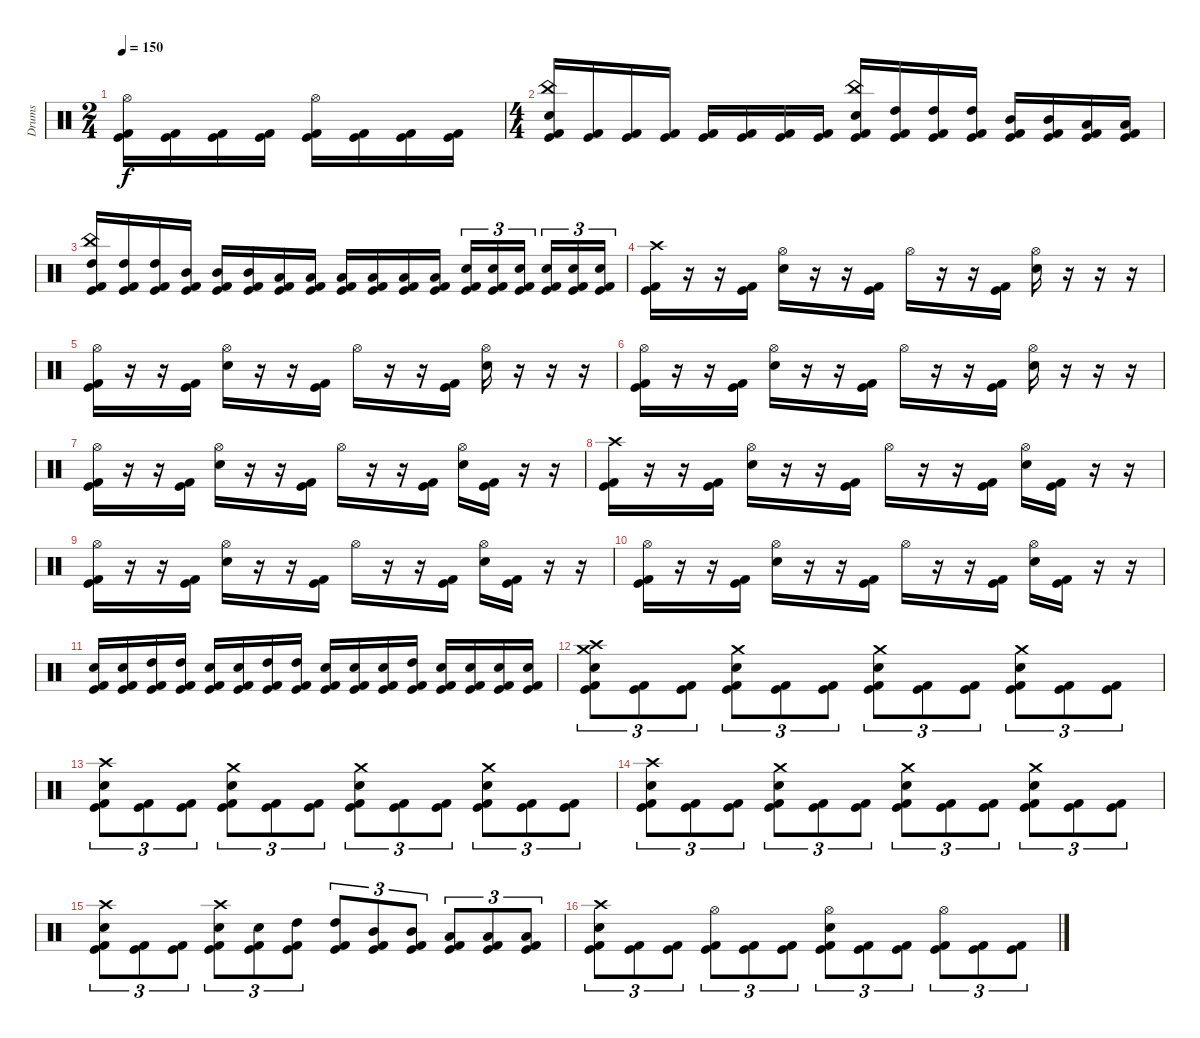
\track ("Drums" "Drums") {instrument percussion}
\staff {score}
\articulation defaults
\ts (2 4)
\tempo 150
\clef neutral
\ks c
("Hi-Hat (open)" "Kick (hit)" "Kick (hit) 2").16{dy f} ("Kick (hit)" "Kick (hit) 2").16 ("Kick (hit)" "Kick (hit) 2").16 ("Kick (hit)" "Kick (hit) 2").16 ("Hi-Hat (open)" "Kick (hit)" "Kick (hit) 2").16 ("Kick (hit)" "Kick (hit) 2").16 ("Kick (hit)" "Kick (hit) 2").16 ("Kick (hit)" "Kick (hit) 2").16 |
\ts (4 4)
("China (hit)" "Electric Snare (hit)" "Kick (hit)" "Kick (hit) 2").16 ("Kick (hit)" "Kick (hit) 2").16 ("Kick (hit)" "Kick (hit) 2").16 ("Kick (hit)" "Kick (hit) 2").16 ("Kick (hit)" "Kick (hit) 2").16 ("Kick (hit)" "Kick (hit) 2").16 ("Kick (hit)" "Kick (hit) 2").16 ("Kick (hit)" "Kick (hit) 2").16 ("China (hit)" "Electric Snare (hit)" "Kick (hit)" "Kick (hit) 2").16 ("High Tom (hit)" "Kick (hit)" "Kick (hit) 2").16 ("High Tom (hit)" "Kick (hit)" "Kick (hit) 2").16 ("High Tom (hit)" "Kick (hit)" "Kick (hit) 2").16 ("Mid Tom (hit)" "Kick (hit)" "Kick (hit) 2").16 ("Mid Tom (hit)" "Kick (hit)" "Kick (hit) 2").16 ("Low Tom (hit)" "Kick (hit)" "Kick (hit) 2").16 ("Low Floor Tom (hit)" "Kick (hit)" "Kick (hit) 2").16 |
("China (hit)" "High Tom (hit)" "Kick (hit)" "Kick (hit) 2").16 ("High Tom (hit)" "Kick (hit)" "Kick (hit) 2").16 ("High Tom (hit)" "Kick (hit)" "Kick (hit) 2").16 ("Mid Tom (hit)" "Kick (hit)" "Kick (hit) 2").16 ("Mid Tom (hit)" "Kick (hit)" "Kick (hit) 2").16 ("Mid Tom (hit)" "Kick (hit)" "Kick (hit) 2").16 ("Low Tom (hit)" "Kick (hit)" "Kick (hit) 2").16 ("Low Tom (hit)" "Kick (hit)" "Kick (hit) 2").16 ("Low Tom (hit)" "Kick (hit)" "Kick (hit) 2").16 ("Low Floor Tom (hit)" "Kick (hit)" "Kick (hit) 2").16 ("Low Floor Tom (hit)" "Kick (hit)" "Kick (hit) 2").16 ("Low Floor Tom (hit)" "Kick (hit)" "Kick (hit) 2").16 ("Electric Snare (hit)" "Kick (hit)" "Kick (hit) 2").16{tu (3 2)} ("Electric Snare (hit)" "Kick (hit)" "Kick (hit) 2").16{tu (3 2)} ("Electric Snare (hit)" "Kick (hit)" "Kick (hit) 2").16{tu (3 2) beam splitsecondary} ("Electric Snare (hit)" "Kick (hit)" "Kick (hit) 2").16{tu (3 2)} ("Electric Snare (hit)" "Kick (hit)" "Kick (hit) 2").16{tu (3 2)} ("Electric Snare (hit)" "Kick (hit)" "Kick (hit) 2").16{tu (3 2)} |
("Crash high (hit)" "Kick (hit)" "Kick (hit) 2").16 r.16 r.16 ("Kick (hit)" "Kick (hit) 2").16 ("Hi-Hat (open)" "Electric Snare (hit)").16 r.16 r.16 ("Kick (hit)" "Kick (hit) 2").16 "Hi-Hat (open)".16 r.16 r.16 ("Kick (hit)" "Kick (hit) 2").16 ("Hi-Hat (open)" "Electric Snare (hit)").16 r.16 r.16 r.16 |
("Hi-Hat (open)" "Kick (hit)" "Kick (hit) 2").16 r.16 r.16 ("Kick (hit)" "Kick (hit) 2").16 ("Hi-Hat (open)" "Electric Snare (hit)").16 r.16 r.16 ("Kick (hit)" "Kick (hit) 2").16 "Hi-Hat (open)".16 r.16 r.16 ("Kick (hit)" "Kick (hit) 2").16 ("Hi-Hat (open)" "Electric Snare (hit)").16 r.16 r.16 r.16 |
("Hi-Hat (open)" "Kick (hit)" "Kick (hit) 2").16 r.16 r.16 ("Kick (hit)" "Kick (hit) 2").16 ("Hi-Hat (open)" "Electric Snare (hit)").16 r.16 r.16 ("Kick (hit)" "Kick (hit) 2").16 "Hi-Hat (open)".16 r.16 r.16 ("Kick (hit)" "Kick (hit) 2").16 ("Hi-Hat (open)" "Electric Snare (hit)").16 r.16 r.16 r.16 |
("Hi-Hat (open)" "Kick (hit)" "Kick (hit) 2").16 r.16 r.16 ("Kick (hit)" "Kick (hit) 2").16 ("Hi-Hat (open)" "Electric Snare (hit)").16 r.16 r.16 ("Kick (hit)" "Kick (hit) 2").16 "Hi-Hat (open)".16 r.16 r.16 ("Kick (hit)" "Kick (hit) 2").16 ("Hi-Hat (open)" "Electric Snare (hit)").16 ("Kick (hit)" "Kick (hit) 2").16 r.16 r.16 |
("Crash high (hit)" "Kick (hit)" "Kick (hit) 2").16 r.16 r.16 ("Kick (hit)" "Kick (hit) 2").16 ("Hi-Hat (open)" "Electric Snare (hit)").16 r.16 r.16 ("Kick (hit)" "Kick (hit) 2").16 "Hi-Hat (open)".16 r.16 r.16 ("Kick (hit)" "Kick (hit) 2").16 ("Hi-Hat (open)" "Electric Snare (hit)").16 ("Kick (hit)" "Kick (hit) 2").16 r.16 r.16 |
("Hi-Hat (open)" "Kick (hit)" "Kick (hit) 2").16 r.16 r.16 ("Kick (hit)" "Kick (hit) 2").16 ("Hi-Hat (open)" "Electric Snare (hit)").16 r.16 r.16 ("Kick (hit)" "Kick (hit) 2").16 "Hi-Hat (open)".16 r.16 r.16 ("Kick (hit)" "Kick (hit) 2").16 ("Hi-Hat (open)" "Electric Snare (hit)").16 ("Kick (hit)" "Kick (hit) 2").16 r.16 r.16 |
("Hi-Hat (open)" "Kick (hit)" "Kick (hit) 2").16 r.16 r.16 ("Kick (hit)" "Kick (hit) 2").16 ("Hi-Hat (open)" "Electric Snare (hit)").16 r.16 r.16 ("Kick (hit)" "Kick (hit) 2").16 "Hi-Hat (open)".16 r.16 r.16 ("Kick (hit)" "Kick (hit) 2").16 ("Hi-Hat (open)" "Electric Snare (hit)").16 ("Kick (hit)" "Kick (hit) 2").16 r.16 r.16 |
("Electric Snare (hit)" "Kick (hit)" "Kick (hit) 2").16 ("Electric Snare (hit)" "Kick (hit)" "Kick (hit) 2").16 ("High Tom (hit)" "Kick (hit)" "Kick (hit) 2").16 ("High Tom (hit)" "Kick (hit)" "Kick (hit) 2").16 ("Electric Snare (hit)" "Kick (hit)" "Kick (hit) 2").16 ("Electric Snare (hit)" "Kick (hit)" "Kick (hit) 2").16 ("High Tom (hit)" "Kick (hit)" "Kick (hit) 2").16 ("High Tom (hit)" "Kick (hit)" "Kick (hit) 2").16 ("Electric Snare (hit)" "Kick (hit)" "Kick (hit) 2").16 ("Electric Snare (hit)" "Kick (hit)" "Kick (hit) 2").16 ("Electric Snare (hit)" "Kick (hit)" "Kick (hit) 2").16 ("High Tom (hit)" "Kick (hit)" "Kick (hit) 2").16 ("Electric Snare (hit)" "Kick (hit)" "Kick (hit) 2").16 ("Electric Snare (hit)" "Kick (hit)" "Kick (hit) 2").16 ("Electric Snare (hit)" "Kick (hit)" "Kick (hit) 2").16 ("Electric Snare (hit)" "Kick (hit)" "Kick (hit) 2").16 |
("Crash medium (hit)" "Crash high (hit)" "Electric Snare (hit)" "Kick (hit)" "Kick (hit) 2").8{tu (3 2)} ("Kick (hit)" "Kick (hit) 2").8{tu (3 2)} ("Kick (hit)" "Kick (hit) 2").8{tu (3 2)} ("Crash medium (hit)" "Electric Snare (hit)" "Kick (hit)" "Kick (hit) 2").8{tu (3 2)} ("Kick (hit)" "Kick (hit) 2").8{tu (3 2)} ("Kick (hit)" "Kick (hit) 2").8{tu (3 2)} ("Crash medium (hit)" "Electric Snare (hit)" "Kick (hit)" "Kick (hit) 2").8{tu (3 2)} ("Kick (hit)" "Kick (hit) 2").8{tu (3 2)} ("Kick (hit)" "Kick (hit) 2").8{tu (3 2)} ("Crash medium (hit)" "Electric Snare (hit)" "Kick (hit)" "Kick (hit) 2").8{tu (3 2)} ("Kick (hit)" "Kick (hit) 2").8{tu (3 2)} ("Kick (hit)" "Kick (hit) 2").8{tu (3 2)} |
("Crash high (hit)" "Electric Snare (hit)" "Kick (hit)" "Kick (hit) 2").8{tu (3 2)} ("Kick (hit)" "Kick (hit) 2").8{tu (3 2)} ("Kick (hit)" "Kick (hit) 2").8{tu (3 2)} ("Crash medium (hit)" "Electric Snare (hit)" "Kick (hit)" "Kick (hit) 2").8{tu (3 2)} ("Kick (hit)" "Kick (hit) 2").8{tu (3 2)} ("Kick (hit)" "Kick (hit) 2").8{tu (3 2)} ("Crash medium (hit)" "Electric Snare (hit)" "Kick (hit)" "Kick (hit) 2").8{tu (3 2)} ("Kick (hit)" "Kick (hit) 2").8{tu (3 2)} ("Kick (hit)" "Kick (hit) 2").8{tu (3 2)} ("Crash medium (hit)" "Electric Snare (hit)" "Kick (hit)" "Kick (hit) 2").8{tu (3 2)} ("Kick (hit)" "Kick (hit) 2").8{tu (3 2)} ("Kick (hit)" "Kick (hit) 2").8{tu (3 2)} |
("Crash high (hit)" "Electric Snare (hit)" "Kick (hit)" "Kick (hit) 2").8{tu (3 2)} ("Kick (hit)" "Kick (hit) 2").8{tu (3 2)} ("Kick (hit)" "Kick (hit) 2").8{tu (3 2)} ("Crash medium (hit)" "Electric Snare (hit)" "Kick (hit)" "Kick (hit) 2").8{tu (3 2)} ("Kick (hit)" "Kick (hit) 2").8{tu (3 2)} ("Kick (hit)" "Kick (hit) 2").8{tu (3 2)} ("Crash medium (hit)" "Electric Snare (hit)" "Kick (hit)" "Kick (hit) 2").8{tu (3 2)} ("Kick (hit)" "Kick (hit) 2").8{tu (3 2)} ("Kick (hit)" "Kick (hit) 2").8{tu (3 2)} ("Crash medium (hit)" "Electric Snare (hit)" "Kick (hit)" "Kick (hit) 2").8{tu (3 2)} ("Kick (hit)" "Kick (hit) 2").8{tu (3 2)} ("Kick (hit)" "Kick (hit) 2").8{tu (3 2)} |
("Crash high (hit)" "Electric Snare (hit)" "Kick (hit)" "Kick (hit) 2").8{tu (3 2)} ("Kick (hit)" "Kick (hit) 2").8{tu (3 2)} ("Kick (hit)" "Kick (hit) 2").8{tu (3 2)} ("Crash high (hit)" "Electric Snare (hit)" "Kick (hit)" "Kick (hit) 2").8{tu (3 2)} ("Electric Snare (hit)" "Kick (hit)" "Kick (hit) 2").8{tu (3 2)} ("High Tom (hit)" "Kick (hit)" "Kick (hit) 2").8{tu (3 2)} ("High Tom (hit)" "Kick (hit)" "Kick (hit) 2").8{tu (3 2)} ("Mid Tom (hit)" "Kick (hit)" "Kick (hit) 2").8{tu (3 2)} ("Mid Tom (hit)" "Kick (hit)" "Kick (hit) 2").8{tu (3 2)} ("Low Tom (hit)" "Kick (hit)" "Kick (hit) 2").8{tu (3 2)} ("Low Tom (hit)" "Kick (hit)" "Kick (hit) 2").8{tu (3 2)} ("Low Floor Tom (hit)" "Kick (hit)" "Kick (hit) 2").8{tu (3 2)} |
("Crash high (hit)" "Electric Snare (hit)" "Kick (hit)" "Kick (hit) 2").8{tu (3 2)} ("Kick (hit)" "Kick (hit) 2").8{tu (3 2)} ("Kick (hit)" "Kick (hit) 2").8{tu (3 2)} ("Hi-Hat (open)" "Kick (hit)" "Kick (hit) 2").8{tu (3 2)} ("Kick (hit)" "Kick (hit) 2").8{tu (3 2)} ("Kick (hit)" "Kick (hit) 2").8{tu (3 2)} ("Hi-Hat (open)" "Electric Snare (hit)" "Kick (hit)" "Kick (hit) 2").8{tu (3 2)} ("Kick (hit)" "Kick (hit) 2").8{tu (3 2)} ("Kick (hit)" "Kick (hit) 2").8{tu (3 2)} ("Hi-Hat (open)" "Kick (hit)" "Kick (hit) 2").8{tu (3 2)} ("Kick (hit)" "Kick (hit) 2").8{tu (3 2)} ("Kick (hit)" "Kick (hit) 2").8{tu (3 2)}
